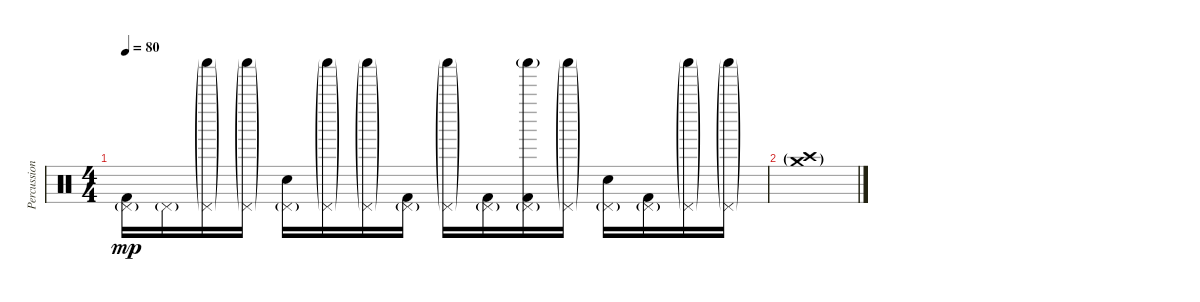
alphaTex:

\track ("Percussion" "Percussion") {instrument percussion}
\staff {score}
\articulation defaults
\ts (4 4)
\tempo 80
\clef neutral
\ks c
("Pedal Hi-Hat (hit)"{g} "Kick (hit) 2").16{dy mp} "Pedal Hi-Hat (hit)"{g}.16 ("Pedal Hi-Hat (hit)"{g} "Shaker (hit)"{g}).16 ("Pedal Hi-Hat (hit)"{g} "Shaker (hit)"{g}).16 ("Pedal Hi-Hat (hit)"{g} "Electric Snare (hit)").16 ("Pedal Hi-Hat (hit)"{g} "Shaker (hit)"{g}).16 ("Pedal Hi-Hat (hit)"{g} "Shaker (hit)"{g}).16 ("Pedal Hi-Hat (hit)"{g} "Kick (hit) 2").16 ("Pedal Hi-Hat (hit)"{g} "Shaker (hit)"{g}).16 ("Pedal Hi-Hat (hit)"{g} "Kick (hit) 2").16 ("Pedal Hi-Hat (hit)"{g} "Shaker (hit)"{g} "Kick (hit) 2").16 ("Pedal Hi-Hat (hit)"{g} "Shaker (hit)"{g}).16 ("Pedal Hi-Hat (hit)"{g} "Electric Snare (hit)").16 ("Pedal Hi-Hat (hit)"{g} "Kick (hit) 2").16 ("Pedal Hi-Hat (hit)"{g} "Shaker (hit)"{g}).16 ("Pedal Hi-Hat (hit)"{g} "Shaker (hit)"{g}).16 |
("Crash high (hit)"{g} "Crash medium (hit)"{g}).1
